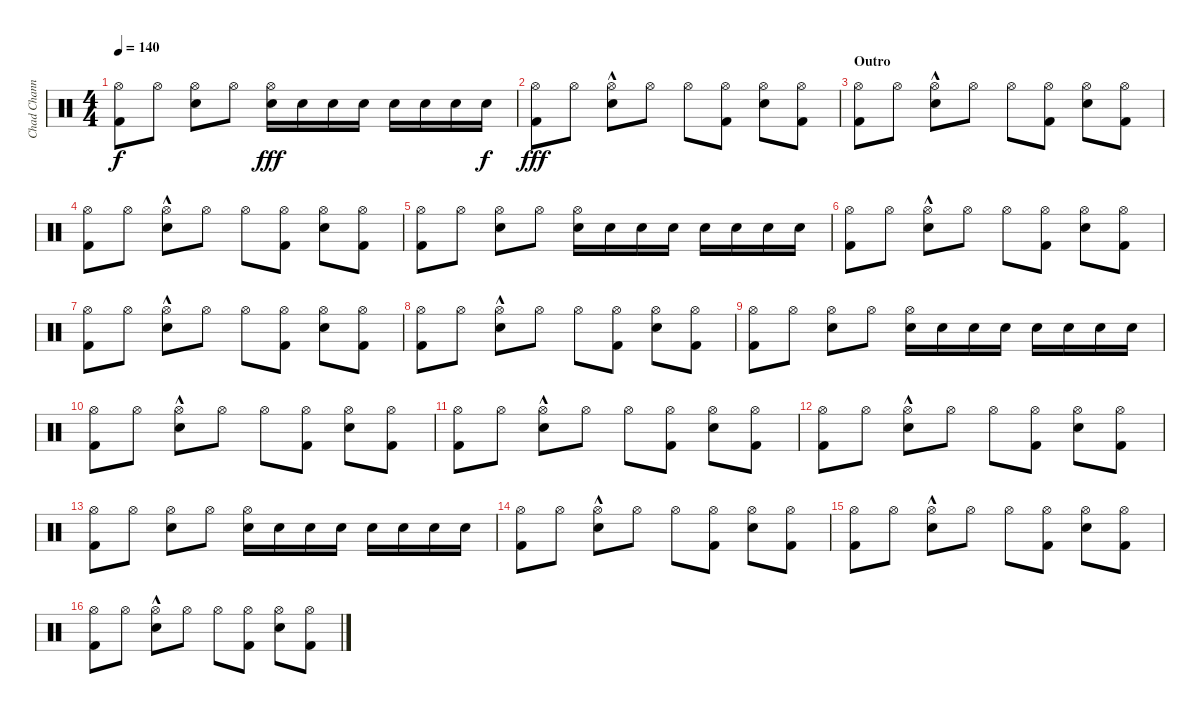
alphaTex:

\track ("Chad Channing" "Chad Chann") {instrument percussion}
\staff {score}
\articulation defaults
\ts (4 4)
\tempo 140
\clef neutral
\ks c
("Hi-Hat (open)" "Kick (hit) 2").8{dy f} "Hi-Hat (open)".8 ("Hi-Hat (open)" "Electric Snare (hit)").8 "Hi-Hat (open)".8 ("Hi-Hat (open)" "Electric Snare (hit)").16{dy fff} "Electric Snare (hit)".16 "Electric Snare (hit)".16 "Electric Snare (hit)".16 "Electric Snare (hit)".16 "Electric Snare (hit)".16 "Electric Snare (hit)".16 "Electric Snare (hit)".16{dy f} |
("Hi-Hat (open)" "Kick (hit) 2").8{dy fff} "Hi-Hat (open)".8 ("Hi-Hat (open)" "Electric Snare (hit)"{hac}).8 "Hi-Hat (open)".8 "Hi-Hat (open)".8 ("Hi-Hat (open)" "Kick (hit) 2").8 ("Hi-Hat (open)" "Electric Snare (hit)").8 ("Hi-Hat (open)" "Kick (hit) 2").8 |
\section ("" "Outro")
("Hi-Hat (open)" "Kick (hit) 2").8 "Hi-Hat (open)".8 ("Hi-Hat (open)" "Electric Snare (hit)"{hac}).8 "Hi-Hat (open)".8 "Hi-Hat (open)".8 ("Hi-Hat (open)" "Kick (hit) 2").8 ("Hi-Hat (open)" "Electric Snare (hit)").8 ("Hi-Hat (open)" "Kick (hit) 2").8 |
("Hi-Hat (open)" "Kick (hit) 2").8 "Hi-Hat (open)".8 ("Hi-Hat (open)" "Electric Snare (hit)"{hac}).8 "Hi-Hat (open)".8 "Hi-Hat (open)".8 ("Hi-Hat (open)" "Kick (hit) 2").8 ("Hi-Hat (open)" "Electric Snare (hit)").8 ("Hi-Hat (open)" "Kick (hit) 2").8 |
("Hi-Hat (open)" "Kick (hit) 2").8 "Hi-Hat (open)".8 ("Hi-Hat (open)" "Electric Snare (hit)").8 "Hi-Hat (open)".8 ("Hi-Hat (open)" "Electric Snare (hit)").16 "Electric Snare (hit)".16 "Electric Snare (hit)".16 "Electric Snare (hit)".16 "Electric Snare (hit)".16 "Electric Snare (hit)".16 "Electric Snare (hit)".16 "Electric Snare (hit)".16 |
("Hi-Hat (open)" "Kick (hit) 2").8 "Hi-Hat (open)".8 ("Hi-Hat (open)" "Electric Snare (hit)"{hac}).8 "Hi-Hat (open)".8 "Hi-Hat (open)".8 ("Hi-Hat (open)" "Kick (hit) 2").8 ("Hi-Hat (open)" "Electric Snare (hit)").8 ("Hi-Hat (open)" "Kick (hit) 2").8 |
("Hi-Hat (open)" "Kick (hit) 2").8 "Hi-Hat (open)".8 ("Hi-Hat (open)" "Electric Snare (hit)"{hac}).8 "Hi-Hat (open)".8 "Hi-Hat (open)".8 ("Hi-Hat (open)" "Kick (hit) 2").8 ("Hi-Hat (open)" "Electric Snare (hit)").8 ("Hi-Hat (open)" "Kick (hit) 2").8 |
("Hi-Hat (open)" "Kick (hit) 2").8 "Hi-Hat (open)".8 ("Hi-Hat (open)" "Electric Snare (hit)"{hac}).8 "Hi-Hat (open)".8 "Hi-Hat (open)".8 ("Hi-Hat (open)" "Kick (hit) 2").8 ("Hi-Hat (open)" "Electric Snare (hit)").8 ("Hi-Hat (open)" "Kick (hit) 2").8 |
("Hi-Hat (open)" "Kick (hit) 2").8 "Hi-Hat (open)".8 ("Hi-Hat (open)" "Electric Snare (hit)").8 "Hi-Hat (open)".8 ("Hi-Hat (open)" "Electric Snare (hit)").16 "Electric Snare (hit)".16 "Electric Snare (hit)".16 "Electric Snare (hit)".16 "Electric Snare (hit)".16 "Electric Snare (hit)".16 "Electric Snare (hit)".16 "Electric Snare (hit)".16 |
("Hi-Hat (open)" "Kick (hit) 2").8 "Hi-Hat (open)".8 ("Hi-Hat (open)" "Electric Snare (hit)"{hac}).8 "Hi-Hat (open)".8 "Hi-Hat (open)".8 ("Hi-Hat (open)" "Kick (hit) 2").8 ("Hi-Hat (open)" "Electric Snare (hit)").8 ("Hi-Hat (open)" "Kick (hit) 2").8 |
("Hi-Hat (open)" "Kick (hit) 2").8 "Hi-Hat (open)".8 ("Hi-Hat (open)" "Electric Snare (hit)"{hac}).8 "Hi-Hat (open)".8 "Hi-Hat (open)".8 ("Hi-Hat (open)" "Kick (hit) 2").8 ("Hi-Hat (open)" "Electric Snare (hit)").8 ("Hi-Hat (open)" "Kick (hit) 2").8 |
("Hi-Hat (open)" "Kick (hit) 2").8 "Hi-Hat (open)".8 ("Hi-Hat (open)" "Electric Snare (hit)"{hac}).8 "Hi-Hat (open)".8 "Hi-Hat (open)".8 ("Hi-Hat (open)" "Kick (hit) 2").8 ("Hi-Hat (open)" "Electric Snare (hit)").8 ("Hi-Hat (open)" "Kick (hit) 2").8 |
("Hi-Hat (open)" "Kick (hit) 2").8 "Hi-Hat (open)".8 ("Hi-Hat (open)" "Electric Snare (hit)").8 "Hi-Hat (open)".8 ("Hi-Hat (open)" "Electric Snare (hit)").16 "Electric Snare (hit)".16 "Electric Snare (hit)".16 "Electric Snare (hit)".16 "Electric Snare (hit)".16 "Electric Snare (hit)".16 "Electric Snare (hit)".16 "Electric Snare (hit)".16 |
("Hi-Hat (open)" "Kick (hit) 2").8 "Hi-Hat (open)".8 ("Hi-Hat (open)" "Electric Snare (hit)"{hac}).8 "Hi-Hat (open)".8 "Hi-Hat (open)".8 ("Hi-Hat (open)" "Kick (hit) 2").8 ("Hi-Hat (open)" "Electric Snare (hit)").8 ("Hi-Hat (open)" "Kick (hit) 2").8 |
("Hi-Hat (open)" "Kick (hit) 2").8 "Hi-Hat (open)".8 ("Hi-Hat (open)" "Electric Snare (hit)"{hac}).8 "Hi-Hat (open)".8 "Hi-Hat (open)".8 ("Hi-Hat (open)" "Kick (hit) 2").8 ("Hi-Hat (open)" "Electric Snare (hit)").8 ("Hi-Hat (open)" "Kick (hit) 2").8 |
("Hi-Hat (open)" "Kick (hit) 2").8 "Hi-Hat (open)".8 ("Hi-Hat (open)" "Electric Snare (hit)"{hac}).8 "Hi-Hat (open)".8 "Hi-Hat (open)".8 ("Hi-Hat (open)" "Kick (hit) 2").8 ("Hi-Hat (open)" "Electric Snare (hit)").8 ("Hi-Hat (open)" "Kick (hit) 2").8
